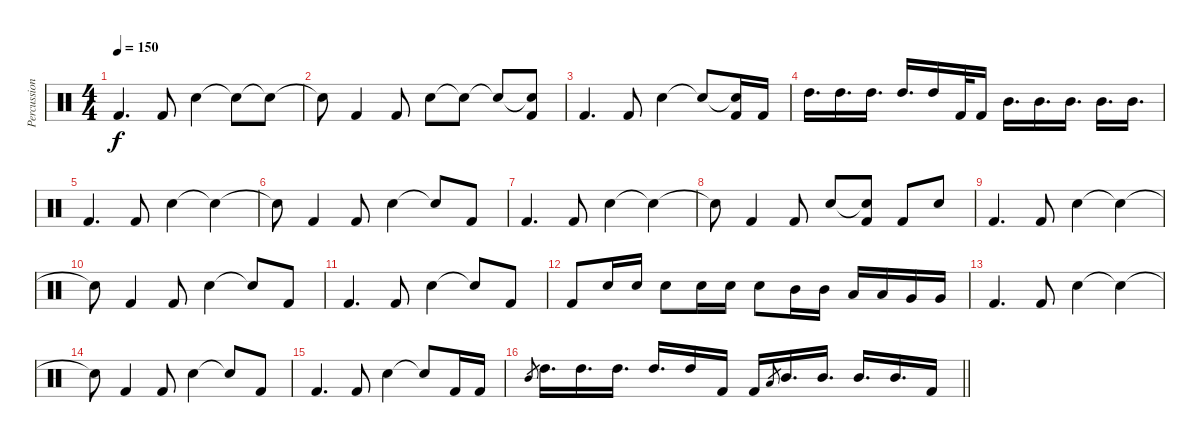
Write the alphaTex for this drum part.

\track ("Percussion" "Percussion") {instrument percussion}
\staff {score}
\articulation defaults
\ts (4 4)
\tempo 150
\clef neutral
\ks c "Kick (hit) 2".4{d dy f} "Kick (hit) 2".8 "Electric Snare (hit)".4 "Snare (hit)"{t}.8 "Snare (hit)"{t}.8
|
"Snare (hit)"{t}.8 "Kick (hit) 2".4 "Kick (hit) 2".8 "Electric Snare (hit)".8 "Snare (hit)"{t}.8 "Snare (hit)"{t}.8 ("Snare (hit)"{t} "Kick (hit) 2").8 |
"Kick (hit) 2".4{d} "Kick (hit) 2".8 "Electric Snare (hit)".4 "Snare (hit)"{t}.8 ("Snare (hit)"{t} "Kick (hit) 2").16 "Kick (hit) 2".16 |
"High Tom (hit)".16{d} "High Tom (hit)".16{d} "High Tom (hit)".16{d} "High Tom (hit)".16{d} "High Tom (hit)".16 "Kick (hit) 2".32 "Kick (hit) 2".16 "Mid Tom (hit)".16{d} "Mid Tom (hit)".16{d} "Mid Tom (hit)".16{d} "Mid Tom (hit)".16{d} "Mid Tom (hit)".16{d} |
"Kick (hit) 2".4{d} "Kick (hit) 2".8 "Electric Snare (hit)".4 "Snare (hit)"{t}.4 |
"Snare (hit)"{t}.8 "Kick (hit) 2".4 "Kick (hit) 2".8 "Electric Snare (hit)".4 "Snare (hit)"{t}.8 "Kick (hit) 2".8 |
"Kick (hit) 2".4{d} "Kick (hit) 2".8 "Electric Snare (hit)".4 "Snare (hit)"{t}.4 |
"Snare (hit)"{t}.8 "Kick (hit) 2".4 "Kick (hit) 2".8 "Electric Snare (hit)".8 ("Snare (hit)"{t} "Kick (hit) 2").8 "Kick (hit) 2".8 "Electric Snare (hit)".8 |
"Kick (hit) 2".4{d} "Kick (hit) 2".8 "Electric Snare (hit)".4 "Snare (hit)"{t}.4 |
"Snare (hit)"{t}.8 "Kick (hit) 2".4 "Kick (hit) 2".8 "Electric Snare (hit)".4 "Snare (hit)"{t}.8 "Kick (hit) 2".8 |
"Kick (hit) 2".4{d} "Kick (hit) 2".8 "Electric Snare (hit)".4 "Snare (hit)"{t}.8 "Kick (hit) 2".8 |
"Kick (hit) 2".8 "Electric Snare (hit)".16 "Electric Snare (hit)".16 "Electric Snare (hit)".8 "Electric Snare (hit)".16 "Electric Snare (hit)".16 "Electric Snare (hit)".8 "Mid Tom (hit)".16 "Mid Tom (hit)".16 "Low Tom (hit)".16 "Low Tom (hit)".16 "Very Low Tom (hit)".16 "Very Low Tom (hit)".16 |
"Kick (hit) 2".4{d} "Kick (hit) 2".8 "Electric Snare (hit)".4 "Snare (hit)"{t}.4 |
"Snare (hit)"{t}.8 "Kick (hit) 2".4 "Kick (hit) 2".8 "Electric Snare (hit)".4 "Snare (hit)"{t}.8 "Kick (hit) 2".8 |
"Kick (hit) 2".4{d} "Kick (hit) 2".8 "Electric Snare (hit)".4 "Snare (hit)"{t}.8 "Kick (hit) 2".16 "Kick (hit) 2".16 |
\barLineRight lightlight "Mid Tom (hit)".8{gr} "High Tom (hit)".16{d} "High Tom (hit)".16{d} "High Tom (hit)".16{d} "High Tom (hit)".16{d} "High Tom (hit)".16 "Kick (hit) 2".16 "Kick (hit) 2".16 "Low Tom (hit)".8{gr} "Mid Tom (hit)".16{d} "Mid Tom (hit)".16{d} "Mid Tom (hit)".16{d} "Mid Tom (hit)".16{d} "Kick (hit) 2".16
